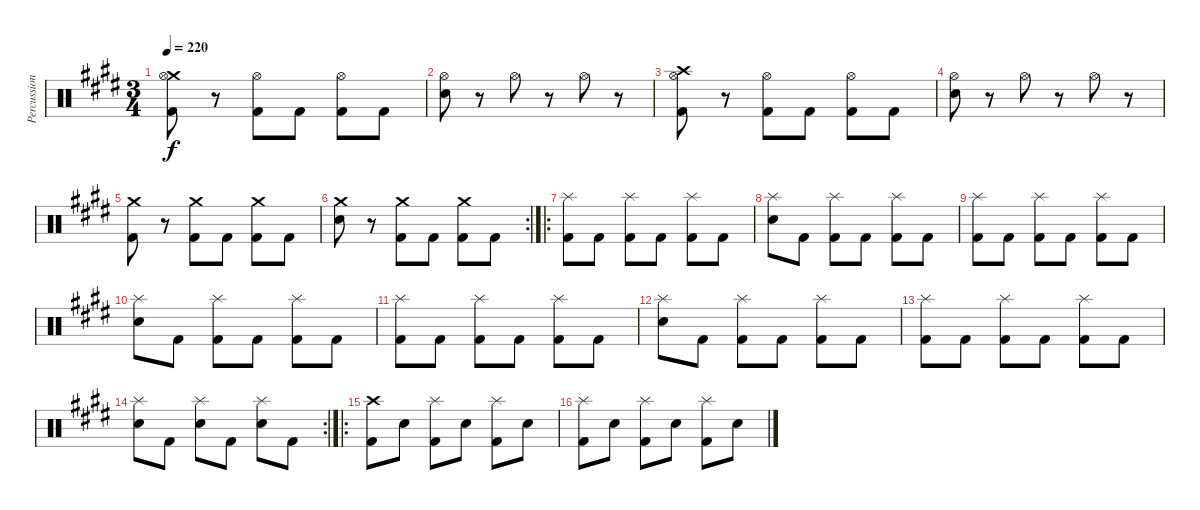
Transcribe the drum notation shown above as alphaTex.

\track ("Percussion" "Percussion") {instrument percussion}
\staff {score}
\articulation defaults
\ts (3 4)
\tempo 220
\clef neutral
\ks e
("Crash medium (hit)" "Hi-Hat (open)" "Kick (hit) 2").8{dy f} r.8 ("Hi-Hat (open)" "Kick (hit) 2").8 "Kick (hit) 2".8 ("Hi-Hat (open)" "Kick (hit) 2").8 "Kick (hit) 2".8 |
("Hi-Hat (open)" "Snare (hit) 2").8 r.8 "Hi-Hat (open)".8 r.8 "Hi-Hat (open)".8 r.8 |
("Crash high (hit)" "Hi-Hat (open)" "Kick (hit) 2").8 r.8 ("Hi-Hat (open)" "Kick (hit) 2").8 "Kick (hit) 2".8 ("Hi-Hat (open)" "Kick (hit) 2").8 "Kick (hit) 2".8 |
("Hi-Hat (open)" "Snare (hit) 2").8 r.8 "Hi-Hat (open)".8 r.8 "Hi-Hat (open)".8 r.8 |
("Crash medium (hit)" "Kick (hit) 2").8 r.8 ("Crash medium (hit)" "Kick (hit) 2").8 "Kick (hit) 2".8 ("Crash medium (hit)" "Kick (hit) 2").8 "Kick (hit) 2".8 |
\rc 2
("Crash medium (hit)" "Snare (hit) 2").8 r.8 ("Crash medium (hit)" "Kick (hit) 2").8 "Kick (hit) 2".8 ("Crash medium (hit)" "Kick (hit) 2").8 "Kick (hit) 2".8 |
\ro
("Splash (hit)" "Kick (hit) 2").8 "Kick (hit) 2".8 ("Splash (hit)" "Kick (hit) 2").8 "Kick (hit) 2".8 ("Splash (hit)" "Kick (hit) 2").8 "Kick (hit) 2".8 |
("Splash (hit)" "Snare (hit) 2").8 "Kick (hit) 2".8 ("Splash (hit)" "Kick (hit) 2").8 "Kick (hit) 2".8 ("Splash (hit)" "Kick (hit) 2").8 "Kick (hit) 2".8 |
("Splash (hit)" "Kick (hit) 2").8 "Kick (hit) 2".8 ("Splash (hit)" "Kick (hit) 2").8 "Kick (hit) 2".8 ("Splash (hit)" "Kick (hit) 2").8 "Kick (hit) 2".8 |
("Splash (hit)" "Snare (hit) 2").8 "Kick (hit) 2".8 ("Splash (hit)" "Kick (hit) 2").8 "Kick (hit) 2".8 ("Splash (hit)" "Kick (hit) 2").8 "Kick (hit) 2".8 |
("Splash (hit)" "Kick (hit) 2").8 "Kick (hit) 2".8 ("Splash (hit)" "Kick (hit) 2").8 "Kick (hit) 2".8 ("Splash (hit)" "Kick (hit) 2").8 "Kick (hit) 2".8 |
("Splash (hit)" "Snare (hit) 2").8 "Kick (hit) 2".8 ("Splash (hit)" "Kick (hit) 2").8 "Kick (hit) 2".8 ("Splash (hit)" "Kick (hit) 2").8 "Kick (hit) 2".8 |
("Splash (hit)" "Kick (hit) 2").8 "Kick (hit) 2".8 ("Splash (hit)" "Kick (hit) 2").8 "Kick (hit) 2".8 ("Splash (hit)" "Kick (hit) 2").8 "Kick (hit) 2".8 |
\rc 2
("Splash (hit)" "Snare (hit) 2").8 "Kick (hit) 2".8 ("Splash (hit)" "Snare (hit) 2").8 "Kick (hit) 2".8 ("Splash (hit)" "Snare (hit) 2").8 "Kick (hit) 2".8 |
\ro
("Crash high (hit)" "Kick (hit) 2").8 "Snare (hit) 2".8 ("Splash (hit)" "Kick (hit) 2").8 "Snare (hit) 2".8 ("Splash (hit)" "Kick (hit) 2").8 "Snare (hit) 2".8 |
("Splash (hit)" "Kick (hit) 2").8 "Snare (hit) 2".8 ("Splash (hit)" "Kick (hit) 2").8 "Snare (hit) 2".8 ("Splash (hit)" "Kick (hit) 2").8 "Snare (hit) 2".8
